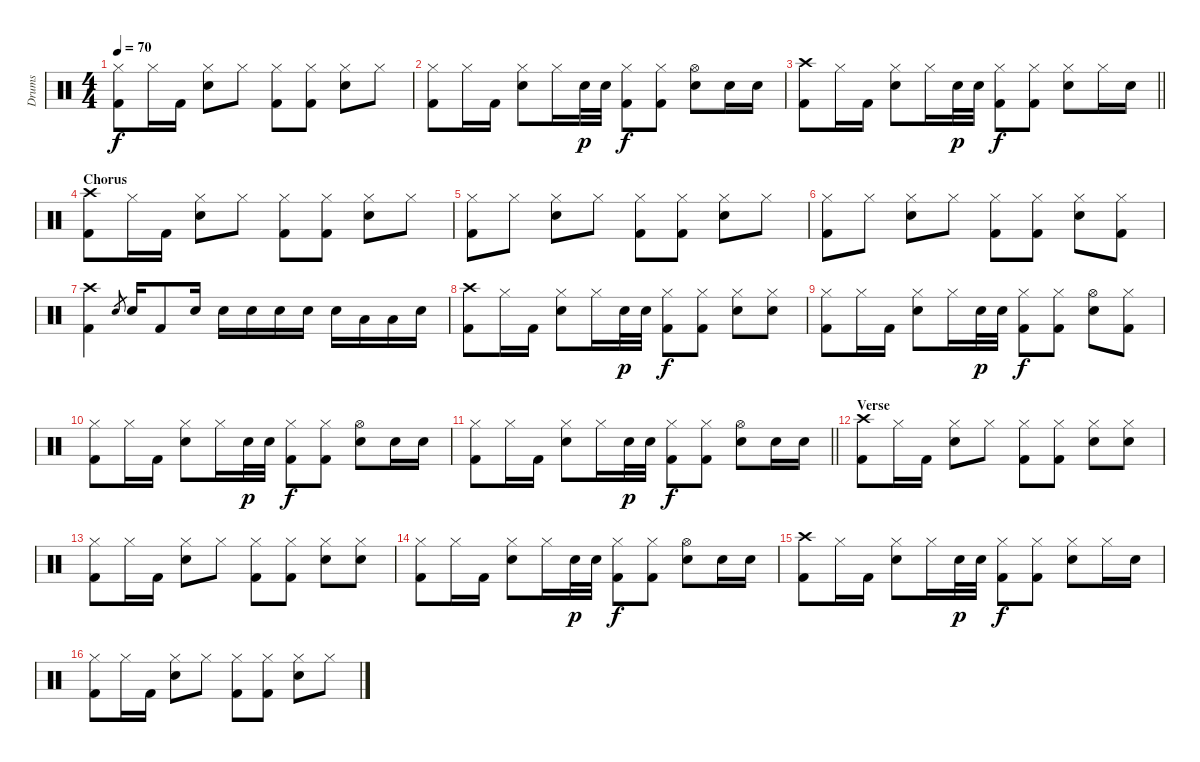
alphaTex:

\track ("Drums" "Drums") {instrument percussion}
\staff {score}
\articulation defaults
\ts (4 4)
\tempo 70
\clef neutral
\ks c
("Hi-Hat (closed)" "Kick (hit) 2").8{dy f} "Hi-Hat (closed)".16 "Kick (hit) 2".16 ("Hi-Hat (closed)" "Electric Snare (hit)").8 "Hi-Hat (closed)".8 ("Hi-Hat (closed)" "Kick (hit) 2").8 ("Hi-Hat (closed)" "Kick (hit) 2").8 ("Hi-Hat (closed)" "Electric Snare (hit)").8 "Hi-Hat (closed)".8 |
("Hi-Hat (closed)" "Kick (hit) 2").8 "Hi-Hat (closed)".16 "Kick (hit) 2".16 ("Hi-Hat (closed)" "Electric Snare (hit)").8 "Hi-Hat (closed)".16 "Electric Snare (hit)".32{dy p} "Electric Snare (hit)".32 ("Hi-Hat (closed)" "Kick (hit) 2").8{dy f} ("Hi-Hat (closed)" "Kick (hit) 2").8 ("Hi-Hat (open)" "Electric Snare (hit)").8 "Electric Snare (hit)".16 "Electric Snare (hit)".16 |
\barLineRight lightlight
("Crash high (hit)" "Kick (hit) 2").8 "Hi-Hat (closed)".16 "Kick (hit) 2".16 ("Hi-Hat (closed)" "Electric Snare (hit)").8 "Hi-Hat (closed)".16 "Electric Snare (hit)".32{dy p} "Electric Snare (hit)".32 ("Hi-Hat (closed)" "Kick (hit) 2").8{dy f} ("Hi-Hat (closed)" "Kick (hit) 2").8 ("Hi-Hat (closed)" "Electric Snare (hit)").8 "Hi-Hat (closed)".16 "Electric Snare (hit)".16 |
\section ("" "Chorus")
("Crash high (hit)" "Kick (hit) 2").8 "Hi-Hat (closed)".16 "Kick (hit) 2".16 ("Hi-Hat (closed)" "Electric Snare (hit)").8 "Hi-Hat (closed)".8 ("Hi-Hat (closed)" "Kick (hit) 2").8 ("Hi-Hat (closed)" "Kick (hit) 2").8 ("Hi-Hat (closed)" "Electric Snare (hit)").8 "Hi-Hat (closed)".8 |
("Hi-Hat (closed)" "Kick (hit) 2").8 "Hi-Hat (closed)".8 ("Hi-Hat (closed)" "Electric Snare (hit)").8 "Hi-Hat (closed)".8 ("Hi-Hat (closed)" "Kick (hit) 2").8 ("Hi-Hat (closed)" "Kick (hit) 2").8 ("Hi-Hat (closed)" "Electric Snare (hit)").8 "Hi-Hat (closed)".8 |
("Hi-Hat (closed)" "Kick (hit) 2").8 "Hi-Hat (closed)".8 ("Hi-Hat (closed)" "Electric Snare (hit)").8 "Hi-Hat (closed)".8 ("Hi-Hat (closed)" "Kick (hit) 2").8 ("Hi-Hat (closed)" "Kick (hit) 2").8 ("Hi-Hat (closed)" "Electric Snare (hit)").8 ("Hi-Hat (closed)" "Kick (hit) 2").8 |
("Crash high (hit)" "Kick (hit) 2").4 "Electric Snare (hit)".8{gr} "Electric Snare (hit)".16 "Kick (hit) 2".8 "Electric Snare (hit)".16 "Electric Snare (hit)".16 "Electric Snare (hit)".16 "Electric Snare (hit)".16 "Electric Snare (hit)".16 "Electric Snare (hit)".16 "Low Tom (hit)".16 "Low Floor Tom (hit)".16 "Electric Snare (hit)".16 |
("Crash high (hit)" "Kick (hit) 2").8 "Hi-Hat (closed)".16 "Kick (hit) 2".16 ("Hi-Hat (closed)" "Electric Snare (hit)").8 "Hi-Hat (closed)".16 "Electric Snare (hit)".32{dy p} "Electric Snare (hit)".32 ("Hi-Hat (closed)" "Kick (hit) 2").8{dy f} ("Hi-Hat (closed)" "Kick (hit) 2").8 ("Hi-Hat (closed)" "Electric Snare (hit)").8 ("Hi-Hat (closed)" "Electric Snare (hit)").8 |
("Hi-Hat (closed)" "Kick (hit) 2").8 "Hi-Hat (closed)".16 "Kick (hit) 2".16 ("Hi-Hat (closed)" "Electric Snare (hit)").8 "Hi-Hat (closed)".16 "Electric Snare (hit)".32{dy p} "Electric Snare (hit)".32 ("Hi-Hat (closed)" "Kick (hit) 2").8{dy f} ("Hi-Hat (closed)" "Kick (hit) 2").8 ("Hi-Hat (open)" "Electric Snare (hit)").8 ("Hi-Hat (closed)" "Kick (hit) 2").8 |
("Hi-Hat (closed)" "Kick (hit) 2").8 "Hi-Hat (closed)".16 "Kick (hit) 2".16 ("Hi-Hat (closed)" "Electric Snare (hit)").8 "Hi-Hat (closed)".16 "Electric Snare (hit)".32{dy p} "Electric Snare (hit)".32 ("Hi-Hat (closed)" "Kick (hit) 2").8{dy f} ("Hi-Hat (closed)" "Kick (hit) 2").8 ("Hi-Hat (open)" "Electric Snare (hit)").8 "Electric Snare (hit)".16 "Electric Snare (hit)".16 |
\barLineRight lightlight
("Hi-Hat (closed)" "Kick (hit) 2").8 "Hi-Hat (closed)".16 "Kick (hit) 2".16 ("Hi-Hat (closed)" "Electric Snare (hit)").8 "Hi-Hat (closed)".16 "Electric Snare (hit)".32{dy p} "Electric Snare (hit)".32 ("Hi-Hat (closed)" "Kick (hit) 2").8{dy f} ("Hi-Hat (closed)" "Kick (hit) 2").8 ("Hi-Hat (open)" "Electric Snare (hit)").8 "Electric Snare (hit)".16 "Electric Snare (hit)".16 |
\section ("" "Verse")
("Crash high (hit)" "Kick (hit) 2").8 "Hi-Hat (closed)".16 "Kick (hit) 2".16 ("Hi-Hat (closed)" "Electric Snare (hit)").8 "Hi-Hat (closed)".8 ("Hi-Hat (closed)" "Kick (hit) 2").8 ("Hi-Hat (closed)" "Kick (hit) 2").8 ("Hi-Hat (closed)" "Electric Snare (hit)").8 ("Hi-Hat (closed)" "Electric Snare (hit)").8 |
("Hi-Hat (closed)" "Kick (hit) 2").8 "Hi-Hat (closed)".16 "Kick (hit) 2".16 ("Hi-Hat (closed)" "Electric Snare (hit)").8 "Hi-Hat (closed)".8 ("Hi-Hat (closed)" "Kick (hit) 2").8 ("Hi-Hat (closed)" "Kick (hit) 2").8 ("Hi-Hat (closed)" "Electric Snare (hit)").8 ("Hi-Hat (closed)" "Electric Snare (hit)").8 |
("Hi-Hat (closed)" "Kick (hit) 2").8 "Hi-Hat (closed)".16 "Kick (hit) 2".16 ("Hi-Hat (closed)" "Electric Snare (hit)").8 "Hi-Hat (closed)".16 "Electric Snare (hit)".32{dy p} "Electric Snare (hit)".32 ("Hi-Hat (closed)" "Kick (hit) 2").8{dy f} ("Hi-Hat (closed)" "Kick (hit) 2").8 ("Hi-Hat (open)" "Electric Snare (hit)").8 "Electric Snare (hit)".16 "Electric Snare (hit)".16 |
("Crash high (hit)" "Kick (hit) 2").8 "Hi-Hat (closed)".16 "Kick (hit) 2".16 ("Hi-Hat (closed)" "Electric Snare (hit)").8 "Hi-Hat (closed)".16 "Electric Snare (hit)".32{dy p} "Electric Snare (hit)".32 ("Hi-Hat (closed)" "Kick (hit) 2").8{dy f} ("Hi-Hat (closed)" "Kick (hit) 2").8 ("Hi-Hat (closed)" "Electric Snare (hit)").8 "Hi-Hat (closed)".16 "Electric Snare (hit)".16 |
("Hi-Hat (closed)" "Kick (hit) 2").8 "Hi-Hat (closed)".16 "Kick (hit) 2".16 ("Hi-Hat (closed)" "Electric Snare (hit)").8 "Hi-Hat (closed)".8 ("Hi-Hat (closed)" "Kick (hit) 2").8 ("Hi-Hat (closed)" "Kick (hit) 2").8 ("Hi-Hat (closed)" "Electric Snare (hit)").8 "Hi-Hat (closed)".8
